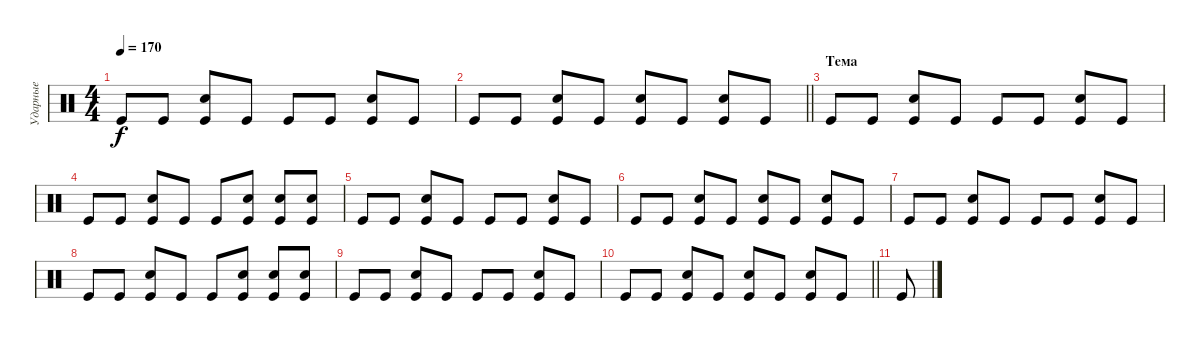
\track ("Ударные" "Ударные") {instrument percussion}
\staff {score}
\articulation defaults
\ts (4 4)
\tempo 170
\clef neutral
\ks c "Kick (hit)".8{dy f} "Kick (hit)".8
("Kick (hit)" "Snare (hit) 2").8 "Kick (hit)".8 "Kick (hit)".8 "Kick (hit)".8 ("Kick (hit)" "Snare (hit) 2").8 "Kick (hit)".8 |
\barLineRight lightlight "Kick (hit)".8 "Kick (hit)".8
("Kick (hit)" "Snare (hit) 2").8 "Kick (hit)".8 ("Snare (hit) 2" "Kick (hit)").8 "Kick (hit)".8 ("Snare (hit) 2" "Kick (hit)").8 "Kick (hit)".8 |
\section ("" "Тема")
"Kick (hit)".8 "Kick (hit)".8 ("Kick (hit)" "Snare (hit) 2").8 "Kick (hit)".8 "Kick (hit)".8 "Kick (hit)".8 ("Kick (hit)" "Snare (hit) 2").8 "Kick (hit)".8 |
"Kick (hit)".8 "Kick (hit)".8 ("Kick (hit)" "Snare (hit) 2").8 "Kick (hit)".8 "Kick (hit)".8 ("Kick (hit)" "Snare (hit) 2").8 ("Kick (hit)" "Snare (hit) 2").8 ("Kick (hit)" "Snare (hit) 2").8 |
"Kick (hit)".8 "Kick (hit)".8 ("Kick (hit)" "Snare (hit) 2").8 "Kick (hit)".8 "Kick (hit)".8 "Kick (hit)".8 ("Kick (hit)" "Snare (hit) 2").8 "Kick (hit)".8 |
"Kick (hit)".8 "Kick (hit)".8 ("Kick (hit)" "Snare (hit) 2").8 "Kick (hit)".8 ("Snare (hit) 2" "Kick (hit)").8 "Kick (hit)".8 ("Snare (hit) 2" "Kick (hit)").8 "Kick (hit)".8 |
"Kick (hit)".8 "Kick (hit)".8 ("Kick (hit)" "Snare (hit) 2").8 "Kick (hit)".8 "Kick (hit)".8 "Kick (hit)".8 ("Kick (hit)" "Snare (hit) 2").8 "Kick (hit)".8 |
"Kick (hit)".8 "Kick (hit)".8 ("Kick (hit)" "Snare (hit) 2").8 "Kick (hit)".8 "Kick (hit)".8 ("Kick (hit)" "Snare (hit) 2").8 ("Kick (hit)" "Snare (hit) 2").8 ("Kick (hit)" "Snare (hit) 2").8 |
"Kick (hit)".8 "Kick (hit)".8 ("Kick (hit)" "Snare (hit) 2").8 "Kick (hit)".8 "Kick (hit)".8 "Kick (hit)".8 ("Kick (hit)" "Snare (hit) 2").8 "Kick (hit)".8 |
\barLineRight lightlight "Kick (hit)".8 "Kick (hit)".8
("Kick (hit)" "Snare (hit) 2").8 "Kick (hit)".8 ("Snare (hit) 2" "Kick (hit)").8 "Kick (hit)".8 ("Snare (hit) 2" "Kick (hit)").8 "Kick (hit)".8 |
"Kick (hit)".8
